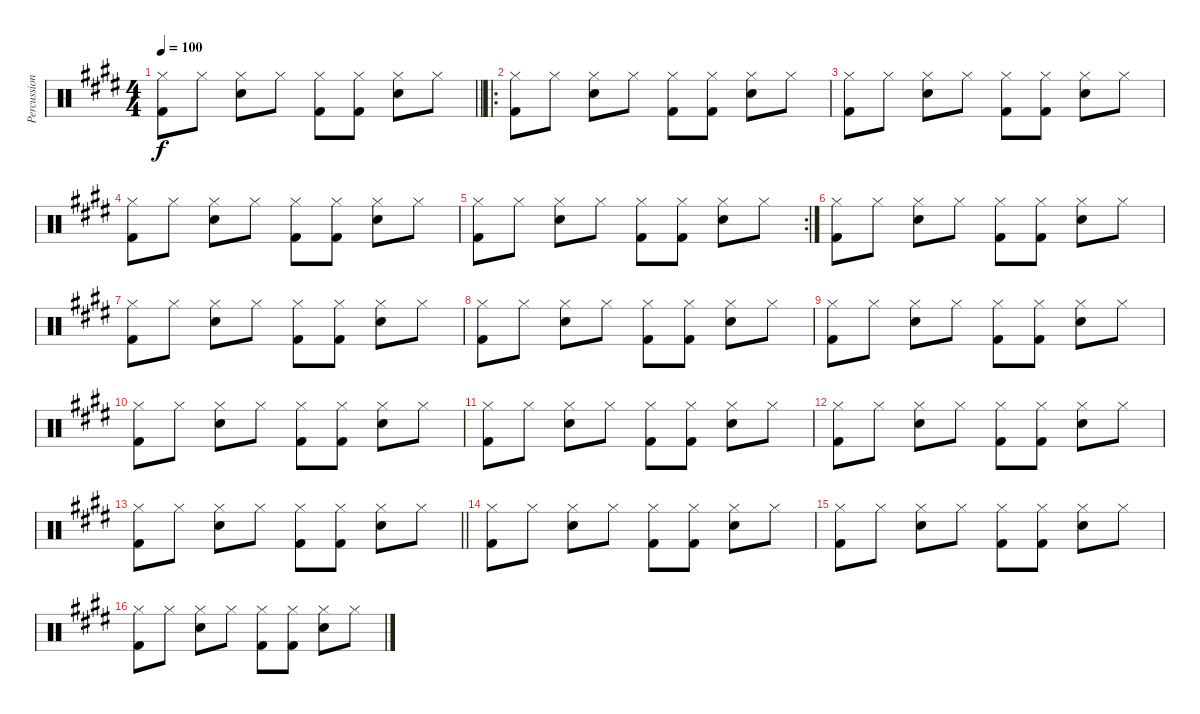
\track ("Percussion" "Percussion") {instrument percussion}
\staff {score}
\articulation defaults
\ts (4 4)
\tempo 100
\clef neutral
\barLineRight lightlight
\ks e
("Hi-Hat (closed)" "Kick (hit) 2").8{dy f} "Hi-Hat (closed)".8 ("Hi-Hat (closed)" "Snare (hit) 2").8 "Hi-Hat (closed)".8 ("Hi-Hat (closed)" "Kick (hit) 2").8 ("Hi-Hat (closed)" "Kick (hit) 2").8 ("Hi-Hat (closed)" "Snare (hit) 2").8 "Hi-Hat (closed)".8 |
\ro
("Hi-Hat (closed)" "Kick (hit) 2").8 "Hi-Hat (closed)".8 ("Hi-Hat (closed)" "Snare (hit) 2").8 "Hi-Hat (closed)".8 ("Hi-Hat (closed)" "Kick (hit) 2").8 ("Hi-Hat (closed)" "Kick (hit) 2").8 ("Hi-Hat (closed)" "Snare (hit) 2").8 "Hi-Hat (closed)".8 |
("Hi-Hat (closed)" "Kick (hit) 2").8 "Hi-Hat (closed)".8 ("Hi-Hat (closed)" "Snare (hit) 2").8 "Hi-Hat (closed)".8 ("Hi-Hat (closed)" "Kick (hit) 2").8 ("Hi-Hat (closed)" "Kick (hit) 2").8 ("Hi-Hat (closed)" "Snare (hit) 2").8 "Hi-Hat (closed)".8 |
("Hi-Hat (closed)" "Kick (hit) 2").8 "Hi-Hat (closed)".8 ("Hi-Hat (closed)" "Snare (hit) 2").8 "Hi-Hat (closed)".8 ("Hi-Hat (closed)" "Kick (hit) 2").8 ("Hi-Hat (closed)" "Kick (hit) 2").8 ("Hi-Hat (closed)" "Snare (hit) 2").8 "Hi-Hat (closed)".8 |
\rc 2
("Hi-Hat (closed)" "Kick (hit) 2").8 "Hi-Hat (closed)".8 ("Hi-Hat (closed)" "Snare (hit) 2").8 "Hi-Hat (closed)".8 ("Hi-Hat (closed)" "Kick (hit) 2").8 ("Hi-Hat (closed)" "Kick (hit) 2").8 ("Hi-Hat (closed)" "Snare (hit) 2").8 "Hi-Hat (closed)".8 |
("Hi-Hat (closed)" "Kick (hit) 2").8 "Hi-Hat (closed)".8 ("Hi-Hat (closed)" "Snare (hit) 2").8 "Hi-Hat (closed)".8 ("Hi-Hat (closed)" "Kick (hit) 2").8 ("Hi-Hat (closed)" "Kick (hit) 2").8 ("Hi-Hat (closed)" "Snare (hit) 2").8 "Hi-Hat (closed)".8 |
("Hi-Hat (closed)" "Kick (hit) 2").8 "Hi-Hat (closed)".8 ("Hi-Hat (closed)" "Snare (hit) 2").8 "Hi-Hat (closed)".8 ("Hi-Hat (closed)" "Kick (hit) 2").8 ("Hi-Hat (closed)" "Kick (hit) 2").8 ("Hi-Hat (closed)" "Snare (hit) 2").8 "Hi-Hat (closed)".8 |
("Hi-Hat (closed)" "Kick (hit) 2").8 "Hi-Hat (closed)".8 ("Hi-Hat (closed)" "Snare (hit) 2").8 "Hi-Hat (closed)".8 ("Hi-Hat (closed)" "Kick (hit) 2").8 ("Hi-Hat (closed)" "Kick (hit) 2").8 ("Hi-Hat (closed)" "Snare (hit) 2").8 "Hi-Hat (closed)".8 |
("Hi-Hat (closed)" "Kick (hit) 2").8 "Hi-Hat (closed)".8 ("Hi-Hat (closed)" "Snare (hit) 2").8 "Hi-Hat (closed)".8 ("Hi-Hat (closed)" "Kick (hit) 2").8 ("Hi-Hat (closed)" "Kick (hit) 2").8 ("Hi-Hat (closed)" "Snare (hit) 2").8 "Hi-Hat (closed)".8 |
("Hi-Hat (closed)" "Kick (hit) 2").8 "Hi-Hat (closed)".8 ("Hi-Hat (closed)" "Snare (hit) 2").8 "Hi-Hat (closed)".8 ("Hi-Hat (closed)" "Kick (hit) 2").8 ("Hi-Hat (closed)" "Kick (hit) 2").8 ("Hi-Hat (closed)" "Snare (hit) 2").8 "Hi-Hat (closed)".8 |
("Hi-Hat (closed)" "Kick (hit) 2").8 "Hi-Hat (closed)".8 ("Hi-Hat (closed)" "Snare (hit) 2").8 "Hi-Hat (closed)".8 ("Hi-Hat (closed)" "Kick (hit) 2").8 ("Hi-Hat (closed)" "Kick (hit) 2").8 ("Hi-Hat (closed)" "Snare (hit) 2").8 "Hi-Hat (closed)".8 |
("Hi-Hat (closed)" "Kick (hit) 2").8 "Hi-Hat (closed)".8 ("Hi-Hat (closed)" "Snare (hit) 2").8 "Hi-Hat (closed)".8 ("Hi-Hat (closed)" "Kick (hit) 2").8 ("Hi-Hat (closed)" "Kick (hit) 2").8 ("Hi-Hat (closed)" "Snare (hit) 2").8 "Hi-Hat (closed)".8 |
\barLineRight lightlight
("Hi-Hat (closed)" "Kick (hit) 2").8 "Hi-Hat (closed)".8 ("Hi-Hat (closed)" "Snare (hit) 2").8 "Hi-Hat (closed)".8 ("Hi-Hat (closed)" "Kick (hit) 2").8 ("Hi-Hat (closed)" "Kick (hit) 2").8 ("Hi-Hat (closed)" "Snare (hit) 2").8 "Hi-Hat (closed)".8 |
("Hi-Hat (closed)" "Kick (hit) 2").8 "Hi-Hat (closed)".8 ("Hi-Hat (closed)" "Snare (hit) 2").8 "Hi-Hat (closed)".8 ("Hi-Hat (closed)" "Kick (hit) 2").8 ("Hi-Hat (closed)" "Kick (hit) 2").8 ("Hi-Hat (closed)" "Snare (hit) 2").8 "Hi-Hat (closed)".8 |
("Hi-Hat (closed)" "Kick (hit) 2").8 "Hi-Hat (closed)".8 ("Hi-Hat (closed)" "Snare (hit) 2").8 "Hi-Hat (closed)".8 ("Hi-Hat (closed)" "Kick (hit) 2").8 ("Hi-Hat (closed)" "Kick (hit) 2").8 ("Hi-Hat (closed)" "Snare (hit) 2").8 "Hi-Hat (closed)".8 |
("Hi-Hat (closed)" "Kick (hit) 2").8 "Hi-Hat (closed)".8 ("Hi-Hat (closed)" "Snare (hit) 2").8 "Hi-Hat (closed)".8 ("Hi-Hat (closed)" "Kick (hit) 2").8 ("Hi-Hat (closed)" "Kick (hit) 2").8 ("Hi-Hat (closed)" "Snare (hit) 2").8 "Hi-Hat (closed)".8
